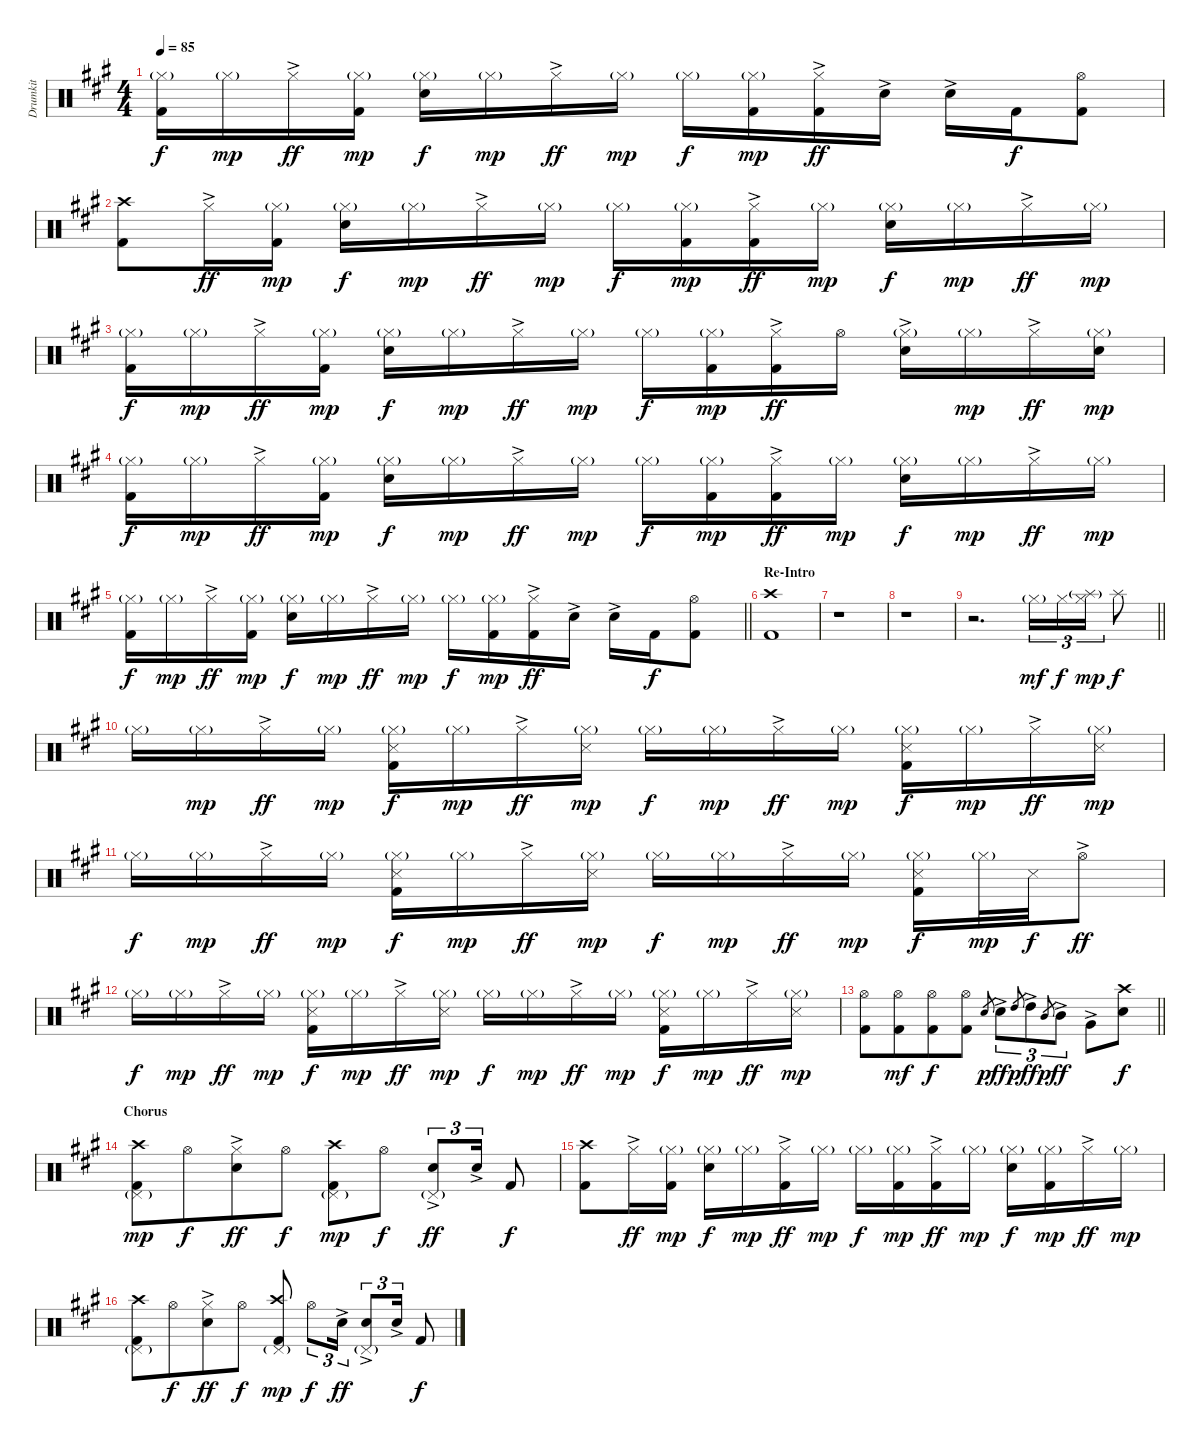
\track ("Drumkit" "Drumkit") {instrument percussion}
\staff {score}
\articulation defaults
\ts (4 4)
\tempo 85
\clef neutral
\ks a
("Hi-Hat (closed)"{g} "Kick (hit) 2").16{dy f} "Hi-Hat (closed)"{g}.16{dy mp} "Hi-Hat (closed)"{ac}.16{dy ff} ("Hi-Hat (closed)"{g} "Kick (hit) 2").16{dy mp} ("Hi-Hat (closed)"{g} "Electric Snare (hit)").16{dy f} "Hi-Hat (closed)"{g}.16{dy mp} "Hi-Hat (closed)"{ac}.16{dy ff} "Hi-Hat (closed)"{g}.16{dy mp} "Hi-Hat (closed)"{g}.16{dy f} ("Hi-Hat (closed)"{g} "Kick (hit) 2").16{dy mp} ("Hi-Hat (closed)"{ac} "Kick (hit) 2").16{dy ff} "Electric Snare (hit)"{ac}.16 "Electric Snare (hit)"{ac}.16 "Kick (hit) 2".16{dy f} ("Hi-Hat (open)" "Kick (hit) 2").8 |
("Crash high (hit)" "Kick (hit) 2").8 "Hi-Hat (closed)"{ac}.16{dy ff} ("Hi-Hat (closed)"{g} "Kick (hit) 2").16{dy mp} ("Hi-Hat (closed)"{g} "Electric Snare (hit)").16{dy f} "Hi-Hat (closed)"{g}.16{dy mp} "Hi-Hat (closed)"{ac}.16{dy ff} "Hi-Hat (closed)"{g}.16{dy mp} "Hi-Hat (closed)"{g}.16{dy f} ("Hi-Hat (closed)"{g} "Kick (hit) 2").16{dy mp} ("Hi-Hat (closed)"{ac} "Kick (hit) 2").16{dy ff} "Hi-Hat (closed)"{g}.16{dy mp} ("Hi-Hat (closed)"{g} "Electric Snare (hit)").16{dy f} "Hi-Hat (closed)"{g}.16{dy mp} "Hi-Hat (closed)"{ac}.16{dy ff} "Hi-Hat (closed)"{g}.16{dy mp} |
("Hi-Hat (closed)"{g} "Kick (hit) 2").16{dy f} "Hi-Hat (closed)"{g}.16{dy mp} "Hi-Hat (closed)"{ac}.16{dy ff} ("Hi-Hat (closed)"{g} "Kick (hit) 2").16{dy mp} ("Hi-Hat (closed)"{g} "Electric Snare (hit)").16{dy f} "Hi-Hat (closed)"{g}.16{dy mp} "Hi-Hat (closed)"{ac}.16{dy ff} "Hi-Hat (closed)"{g}.16{dy mp} "Hi-Hat (closed)"{g}.16{dy f} ("Hi-Hat (closed)"{g} "Kick (hit) 2").16{dy mp} ("Hi-Hat (closed)"{ac} "Kick (hit) 2").16{dy ff} "Hi-Hat (open)".16 ("Hi-Hat (closed)"{g} "Electric Snare (hit)"{ac}).16 "Hi-Hat (closed)"{g}.16{dy mp} "Hi-Hat (closed)"{ac}.16{dy ff} ("Hi-Hat (closed)"{g} "Electric Snare (hit)").16{dy mp} |
("Hi-Hat (closed)"{g} "Kick (hit) 2").16{dy f} "Hi-Hat (closed)"{g}.16{dy mp} "Hi-Hat (closed)"{ac}.16{dy ff} ("Hi-Hat (closed)"{g} "Kick (hit) 2").16{dy mp} ("Hi-Hat (closed)"{g} "Electric Snare (hit)").16{dy f} "Hi-Hat (closed)"{g}.16{dy mp} "Hi-Hat (closed)"{ac}.16{dy ff} "Hi-Hat (closed)"{g}.16{dy mp} "Hi-Hat (closed)"{g}.16{dy f} ("Hi-Hat (closed)"{g} "Kick (hit) 2").16{dy mp} ("Hi-Hat (closed)"{ac} "Kick (hit) 2").16{dy ff} "Hi-Hat (closed)"{g}.16{dy mp} ("Hi-Hat (closed)"{g} "Electric Snare (hit)").16{dy f} "Hi-Hat (closed)"{g}.16{dy mp} "Hi-Hat (closed)"{ac}.16{dy ff} "Hi-Hat (closed)"{g}.16{dy mp} |
\barLineRight lightlight
("Hi-Hat (closed)"{g} "Kick (hit) 2").16{dy f} "Hi-Hat (closed)"{g}.16{dy mp} "Hi-Hat (closed)"{ac}.16{dy ff} ("Hi-Hat (closed)"{g} "Kick (hit) 2").16{dy mp} ("Hi-Hat (closed)"{g} "Electric Snare (hit)").16{dy f} "Hi-Hat (closed)"{g}.16{dy mp} "Hi-Hat (closed)"{ac}.16{dy ff} "Hi-Hat (closed)"{g}.16{dy mp} "Hi-Hat (closed)"{g}.16{dy f} ("Hi-Hat (closed)"{g} "Kick (hit) 2").16{dy mp} ("Hi-Hat (closed)"{ac} "Kick (hit) 2").16{dy ff} "Electric Snare (hit)"{ac}.16 "Electric Snare (hit)"{ac}.16 "Kick (hit) 2".16{dy f} ("Hi-Hat (open)" "Kick (hit) 2").8 |
\section ("" "Re-Intro")
("Crash high (hit)" "Kick (hit) 2").1 |
r.1 |
r.1 |
\barLineRight lightlight
r.2{d} "Hi-Hat (closed)"{g}.16{tu (3 2) dy mf} "Hi-Hat (closed)".16{tu (3 2) dy f} ("Splash (hit)"{g} "Hi-Hat (closed)").16{tu (3 2) dy mp} "Splash (hit)".8{dy f} |
"Hi-Hat (closed)"{g}.16 "Hi-Hat (closed)"{g}.16{dy mp} "Hi-Hat (closed)"{ac}.16{dy ff} "Hi-Hat (closed)"{g}.16{dy mp} ("Hi-Hat (closed)"{g} "Snare (side stick) 3" "Kick (hit) 2").16{dy f} "Hi-Hat (closed)"{g}.16{dy mp} "Hi-Hat (closed)"{ac}.16{dy ff} ("Hi-Hat (closed)"{g} "Snare (side stick) 3").16{dy mp} "Hi-Hat (closed)"{g}.16{dy f} "Hi-Hat (closed)"{g}.16{dy mp} "Hi-Hat (closed)"{ac}.16{dy ff} "Hi-Hat (closed)"{g}.16{dy mp} ("Hi-Hat (closed)"{g} "Snare (side stick) 3" "Kick (hit) 2").16{dy f} "Hi-Hat (closed)"{g}.16{dy mp} "Hi-Hat (closed)"{ac}.16{dy ff} ("Hi-Hat (closed)"{g} "Snare (side stick) 3").16{dy mp} |
"Hi-Hat (closed)"{g}.16{dy f} "Hi-Hat (closed)"{g}.16{dy mp} "Hi-Hat (closed)"{ac}.16{dy ff} "Hi-Hat (closed)"{g}.16{dy mp} ("Hi-Hat (closed)"{g} "Snare (side stick) 3" "Kick (hit) 2").16{dy f} "Hi-Hat (closed)"{g}.16{dy mp} "Hi-Hat (closed)"{ac}.16{dy ff} ("Hi-Hat (closed)"{g} "Snare (side stick) 3").16{dy mp} "Hi-Hat (closed)"{g}.16{dy f} "Hi-Hat (closed)"{g}.16{dy mp} "Hi-Hat (closed)"{ac}.16{dy ff} "Hi-Hat (closed)"{g}.16{dy mp} ("Hi-Hat (closed)"{g} "Snare (side stick) 3" "Kick (hit) 2").16{dy f} "Hi-Hat (closed)"{g}.32{dy mp} "Snare (side stick) 3".32{dy f} "Hi-Hat (open)"{ac}.8{dy ff} |
"Hi-Hat (closed)"{g}.16{dy f} "Hi-Hat (closed)"{g}.16{dy mp} "Hi-Hat (closed)"{ac}.16{dy ff} "Hi-Hat (closed)"{g}.16{dy mp} ("Hi-Hat (closed)"{g} "Snare (side stick) 3" "Kick (hit) 2").16{dy f} "Hi-Hat (closed)"{g}.16{dy mp} "Hi-Hat (closed)"{ac}.16{dy ff} ("Hi-Hat (closed)"{g} "Snare (side stick) 3").16{dy mp} "Hi-Hat (closed)"{g}.16{dy f} "Hi-Hat (closed)"{g}.16{dy mp} "Hi-Hat (closed)"{ac}.16{dy ff} "Hi-Hat (closed)"{g}.16{dy mp} ("Hi-Hat (closed)"{g} "Snare (side stick) 3" "Kick (hit) 2").16{dy f} "Hi-Hat (closed)"{g}.16{dy mp} "Hi-Hat (closed)"{ac}.16{dy ff} ("Hi-Hat (closed)"{g} "Snare (side stick) 3").16{dy mp} |
\barLineRight lightlight
("Hi-Hat (open)" "Kick (hit) 2").8 ("Hi-Hat (open)" "Kick (hit) 2").8{dy mf beam merge} ("Hi-Hat (open)" "Kick (hit) 2").8{dy f} ("Hi-Hat (open)" "Kick (hit) 2").8 "Electric Snare (hit)".8{gr dy p} "Electric Snare (hit)"{ac}.8{tu (3 2) dy ff} "High Tom (hit)".8{gr dy p} "High Tom (hit)"{ac}.8{tu (3 2) dy ff} "Mid Tom (hit)".8{gr dy p} "Mid Tom (hit)"{ac}.8{tu (3 2) dy ff} "Very Low Tom (hit)"{ac}.8 ("Crash high (hit)" "Electric Snare (hit)").8{dy f} |
\section ("" "Chorus")
("Crash high (hit)" "Pedal Hi-Hat (hit)"{g} "Kick (hit) 2").8{dy mp} "Hi-Hat (open)".8{dy f beam merge} ("Hi-Hat (closed)" "Electric Snare (hit)"{ac}).8{dy ff} "Hi-Hat (open)".8{dy f} ("Crash high (hit)" "Pedal Hi-Hat (hit)"{g} "Kick (hit) 2").8{dy mp} "Hi-Hat (open)".8{dy f} ("Pedal Hi-Hat (hit)"{g} "Electric Snare (hit)"{ac}).8{tu (3 2) dy ff} "Electric Snare (hit)"{ac}.16{tu (3 2)} "Kick (hit) 2".8{dy f} |
("Crash high (hit)" "Kick (hit) 2").8 "Hi-Hat (closed)"{ac}.16{dy ff} ("Hi-Hat (closed)"{g} "Kick (hit) 2").16{dy mp} ("Hi-Hat (closed)"{g} "Electric Snare (hit)").16{dy f} "Hi-Hat (closed)"{g}.16{dy mp} ("Hi-Hat (closed)"{ac} "Kick (hit) 2").16{dy ff} "Hi-Hat (closed)"{g}.16{dy mp} "Hi-Hat (closed)"{g}.16{dy f} ("Hi-Hat (closed)"{g} "Kick (hit) 2").16{dy mp} ("Hi-Hat (closed)"{ac} "Kick (hit) 2").16{dy ff} "Hi-Hat (closed)"{g}.16{dy mp} ("Hi-Hat (closed)"{g} "Electric Snare (hit)").16{dy f} ("Hi-Hat (closed)"{g} "Kick (hit) 2").16{dy mp} "Hi-Hat (closed)"{ac}.16{dy ff} "Hi-Hat (closed)"{g}.16{dy mp} |
("Crash high (hit)" "Pedal Hi-Hat (hit)"{g} "Kick (hit) 2").8 "Hi-Hat (open)".8{dy f beam merge} ("Hi-Hat (closed)" "Electric Snare (hit)"{ac}).8{dy ff} "Hi-Hat (open)".8{dy f} ("Crash high (hit)" "Pedal Hi-Hat (hit)"{g} "Kick (hit) 2").8{dy mp} "Hi-Hat (open)".8{tu (3 2) dy f} "Electric Snare (hit)"{ac}.16{tu (3 2) dy ff} ("Pedal Hi-Hat (hit)"{g} "Electric Snare (hit)"{ac}).8{tu (3 2)} "Electric Snare (hit)"{ac}.16{tu (3 2)} "Kick (hit) 2".8{dy f}
